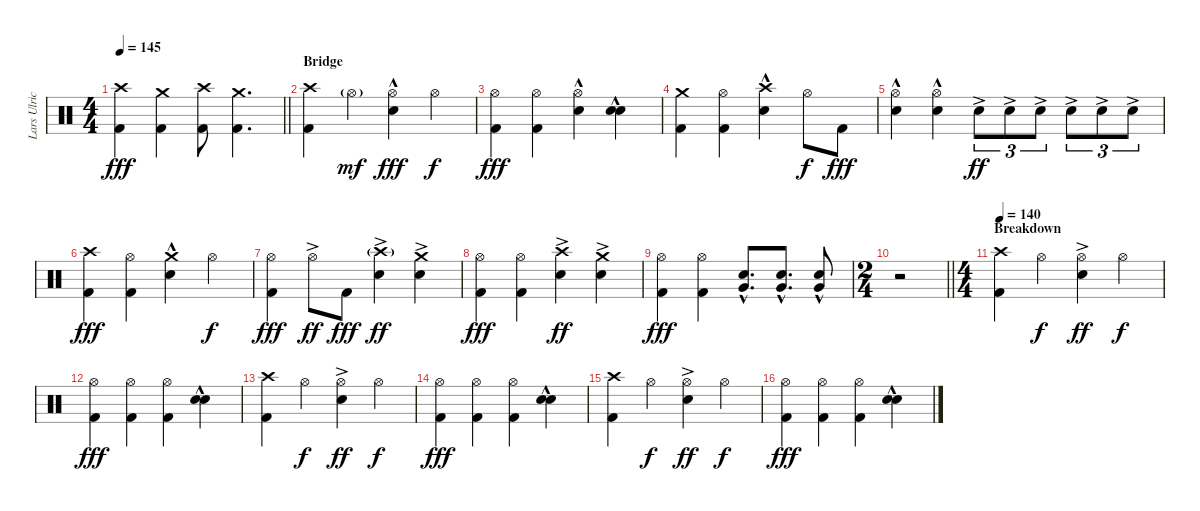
\track ("Lars Ulrich (Drums)" "Lars Ulric") {instrument percussion}
\staff {score}
\articulation defaults
\ts (4 4)
\tempo 145
\clef neutral
\barLineRight lightlight
\ks c
("Crash high (hit)" "Kick (hit) 2").4{dy fff} ("Crash medium (hit)" "Kick (hit) 2").4 ("Crash high (hit)" "Kick (hit) 2").8 ("Crash medium (hit)" "Kick (hit) 2").4{d} |
\section ("" "Bridge")
("Crash high (hit)" "Kick (hit) 2").4 "Hi-Hat (open)"{g}.4{dy mf} ("Hi-Hat (open)"{hac} "Electric Snare (hit)"{hac}).4{dy fff} "Hi-Hat (open)".4{dy f} |
("Hi-Hat (open)" "Kick (hit) 2").4{dy fff} ("Hi-Hat (open)" "Kick (hit) 2").4 ("Hi-Hat (open)"{hac} "Electric Snare (hit)"{hac}).4 ("Electric Snare (hit)"{hac} "Electric Snare (hit)"{hac}).4{bd 120} |
("Crash medium (hit)" "Kick (hit) 2").4 ("Hi-Hat (open)" "Kick (hit) 2").4 ("Crash high (hit)" "Electric Snare (hit)"{hac}).4 "Hi-Hat (open)".8{dy f} "Kick (hit) 2".8{dy fff} |
("Hi-Hat (open)"{hac} "Electric Snare (hit)"{hac}).4 ("Hi-Hat (open)"{hac} "Electric Snare (hit)"{hac}).4 "Electric Snare (hit)"{ac}.8{tu (3 2) dy ff} "Electric Snare (hit)"{ac}.8{tu (3 2)} "Electric Snare (hit)"{ac}.8{tu (3 2)} "Electric Snare (hit)"{ac}.8{tu (3 2)} "Electric Snare (hit)"{ac}.8{tu (3 2)} "Electric Snare (hit)"{ac}.8{tu (3 2)} |
("Crash high (hit)" "Kick (hit) 2").4{dy fff} ("Hi-Hat (open)" "Kick (hit) 2").4 ("Crash medium (hit)" "Electric Snare (hit)"{hac}).4 "Hi-Hat (open)".4{dy f} |
("Hi-Hat (open)" "Kick (hit) 2").4{dy fff} "Hi-Hat (open)"{ac}.8{dy ff} "Kick (hit) 2".8{dy fff} ("Crash high (hit)"{g} "Electric Snare (hit)"{ac}).4{dy ff} ("Crash medium (hit)" "Electric Snare (hit)"{ac}).4 |
("Hi-Hat (open)" "Kick (hit) 2").4{dy fff} ("Hi-Hat (open)" "Kick (hit) 2").4 ("Crash high (hit)" "Electric Snare (hit)"{ac}).4{dy ff} ("Crash medium (hit)" "Electric Snare (hit)"{ac}).4 |
("Hi-Hat (open)" "Kick (hit) 2").4{dy fff} ("Hi-Hat (open)" "Kick (hit) 2").4 ("Electric Snare (hit)"{hac} "Very Low Tom (hit)"{hac}).8{d} ("Electric Snare (hit)"{hac} "Very Low Tom (hit)"{hac}).8{d} ("Electric Snare (hit)"{hac} "Very Low Tom (hit)"{hac}).8 |
\ts (2 4)
\barLineRight lightlight
r.2 |
\ts (4 4)
\section ("" "Breakdown")
\tempo 140
("Crash high (hit)" "Kick (hit) 2").4 "Hi-Hat (open)".4{dy f} ("Hi-Hat (open)"{ac} "Electric Snare (hit)"{ac}).4{dy ff} "Hi-Hat (open)".4{dy f} |
("Hi-Hat (open)" "Kick (hit) 2").4{dy fff} ("Hi-Hat (open)" "Kick (hit) 2").4 ("Hi-Hat (open)" "Kick (hit) 2").4 ("Electric Snare (hit)"{hac} "Electric Snare (hit)"{hac}).4{bd 120} |
("Crash high (hit)" "Kick (hit) 2").4 "Hi-Hat (open)".4{dy f} ("Hi-Hat (open)"{ac} "Electric Snare (hit)"{ac}).4{dy ff} "Hi-Hat (open)".4{dy f} |
("Hi-Hat (open)" "Kick (hit) 2").4{dy fff} ("Hi-Hat (open)" "Kick (hit) 2").4 ("Hi-Hat (open)" "Kick (hit) 2").4 ("Electric Snare (hit)"{hac} "Electric Snare (hit)"{hac}).4{bd 120} |
("Crash high (hit)" "Kick (hit) 2").4 "Hi-Hat (open)".4{dy f} ("Hi-Hat (open)"{ac} "Electric Snare (hit)"{ac}).4{dy ff} "Hi-Hat (open)".4{dy f} |
("Hi-Hat (open)" "Kick (hit) 2").4{dy fff} ("Hi-Hat (open)" "Kick (hit) 2").4 ("Hi-Hat (open)" "Kick (hit) 2").4 ("Electric Snare (hit)"{hac} "Electric Snare (hit)"{hac}).4{bd 120}
